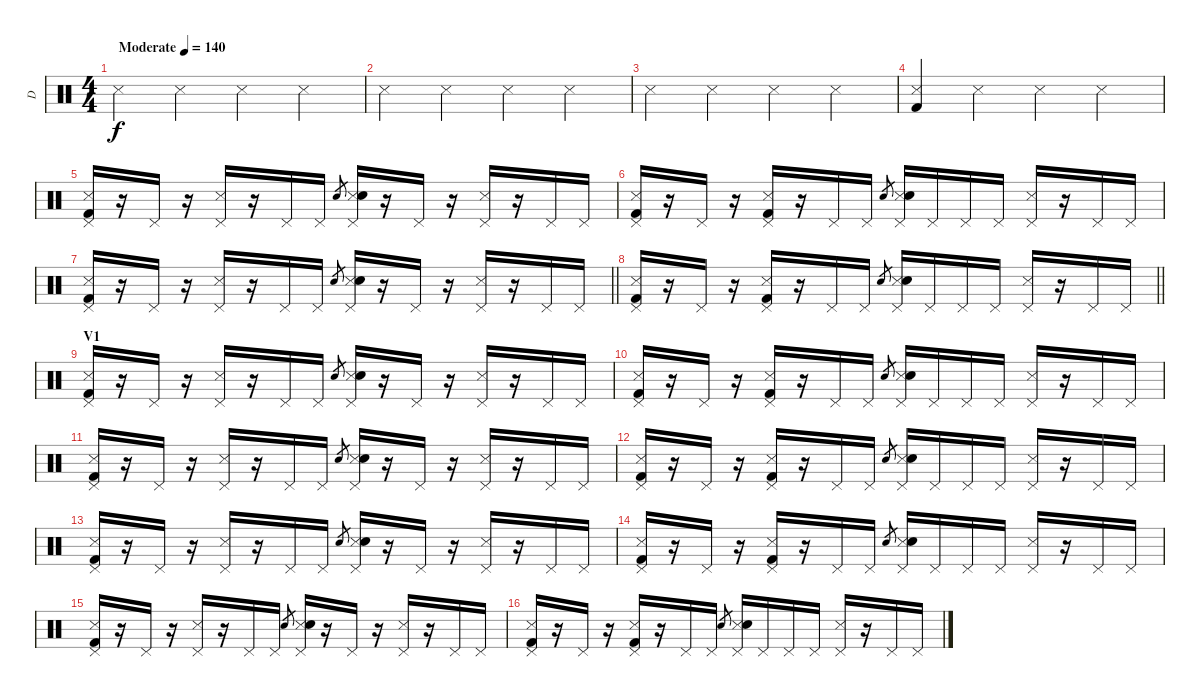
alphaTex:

\track ("D" "D") {instrument percussion}
\staff {score}
\articulation defaults
\ts (4 4)
\tempo (140 "Moderate")
\clef neutral
\ks c "Metronome (hit)".4{dy f} "Metronome (hit)".4 "Metronome (hit)".4 "Metronome (hit)".4
|
"Metronome (hit)".4 "Metronome (hit)".4 "Metronome (hit)".4 "Metronome (hit)".4 |
"Metronome (hit)".4 "Metronome (hit)".4 "Metronome (hit)".4 "Metronome (hit)".4 |
("Kick (hit) 2" "Metronome (hit)").4 "Metronome (hit)".4 "Metronome (hit)".4 "Metronome (hit)".4 |
("Metronome (hit)" "Kick (hit) 2" "Pedal Hi-Hat (hit)").16 r.16 "Pedal Hi-Hat (hit)".16 r.16 ("Metronome (hit)" "Pedal Hi-Hat (hit)").16 r.16 "Pedal Hi-Hat (hit)".16 "Pedal Hi-Hat (hit)".16 "Electric Snare (hit)".8{gr} ("Metronome (hit)" "Electric Snare (hit)" "Pedal Hi-Hat (hit)").16 r.16 "Pedal Hi-Hat (hit)".16 r.16 ("Metronome (hit)" "Pedal Hi-Hat (hit)").16 r.16 "Pedal Hi-Hat (hit)".16 "Pedal Hi-Hat (hit)".16 |
("Metronome (hit)" "Kick (hit) 2" "Pedal Hi-Hat (hit)").16 r.16 "Pedal Hi-Hat (hit)".16 r.16 ("Metronome (hit)" "Kick (hit) 2" "Pedal Hi-Hat (hit)").16 r.16 "Pedal Hi-Hat (hit)".16 "Pedal Hi-Hat (hit)".16 "Electric Snare (hit)".8{gr} ("Metronome (hit)" "Electric Snare (hit)" "Pedal Hi-Hat (hit)").16 "Pedal Hi-Hat (hit)".16 "Pedal Hi-Hat (hit)".16 "Pedal Hi-Hat (hit)".16 ("Metronome (hit)" "Pedal Hi-Hat (hit)").16 r.16 "Pedal Hi-Hat (hit)".16 "Pedal Hi-Hat (hit)".16 |
\barLineRight lightlight
("Metronome (hit)" "Kick (hit) 2" "Pedal Hi-Hat (hit)").16 r.16 "Pedal Hi-Hat (hit)".16 r.16 ("Metronome (hit)" "Pedal Hi-Hat (hit)").16 r.16 "Pedal Hi-Hat (hit)".16 "Pedal Hi-Hat (hit)".16 "Electric Snare (hit)".8{gr} ("Metronome (hit)" "Electric Snare (hit)" "Pedal Hi-Hat (hit)").16 r.16 "Pedal Hi-Hat (hit)".16 r.16 ("Metronome (hit)" "Pedal Hi-Hat (hit)").16 r.16 "Pedal Hi-Hat (hit)".16 "Pedal Hi-Hat (hit)".16 |
\section ("" "")
\barLineRight lightlight
("Metronome (hit)" "Kick (hit) 2" "Pedal Hi-Hat (hit)").16 r.16 "Pedal Hi-Hat (hit)".16 r.16 ("Metronome (hit)" "Kick (hit) 2" "Pedal Hi-Hat (hit)").16 r.16 "Pedal Hi-Hat (hit)".16 "Pedal Hi-Hat (hit)".16 "Electric Snare (hit)".8{gr} ("Metronome (hit)" "Electric Snare (hit)" "Pedal Hi-Hat (hit)").16 "Pedal Hi-Hat (hit)".16 "Pedal Hi-Hat (hit)".16 "Pedal Hi-Hat (hit)".16 ("Metronome (hit)" "Pedal Hi-Hat (hit)").16 r.16 "Pedal Hi-Hat (hit)".16 "Pedal Hi-Hat (hit)".16 |
\section ("" "V1")
("Metronome (hit)" "Kick (hit) 2" "Pedal Hi-Hat (hit)").16 r.16 "Pedal Hi-Hat (hit)".16 r.16 ("Metronome (hit)" "Pedal Hi-Hat (hit)").16 r.16 "Pedal Hi-Hat (hit)".16 "Pedal Hi-Hat (hit)".16 "Electric Snare (hit)".8{gr} ("Metronome (hit)" "Electric Snare (hit)" "Pedal Hi-Hat (hit)").16 r.16 "Pedal Hi-Hat (hit)".16 r.16 ("Metronome (hit)" "Pedal Hi-Hat (hit)").16 r.16 "Pedal Hi-Hat (hit)".16 "Pedal Hi-Hat (hit)".16 |
("Metronome (hit)" "Kick (hit) 2" "Pedal Hi-Hat (hit)").16 r.16 "Pedal Hi-Hat (hit)".16 r.16 ("Metronome (hit)" "Kick (hit) 2" "Pedal Hi-Hat (hit)").16 r.16 "Pedal Hi-Hat (hit)".16 "Pedal Hi-Hat (hit)".16 "Electric Snare (hit)".8{gr} ("Metronome (hit)" "Electric Snare (hit)" "Pedal Hi-Hat (hit)").16 "Pedal Hi-Hat (hit)".16 "Pedal Hi-Hat (hit)".16 "Pedal Hi-Hat (hit)".16 ("Metronome (hit)" "Pedal Hi-Hat (hit)").16 r.16 "Pedal Hi-Hat (hit)".16 "Pedal Hi-Hat (hit)".16 |
("Metronome (hit)" "Kick (hit) 2" "Pedal Hi-Hat (hit)").16 r.16 "Pedal Hi-Hat (hit)".16 r.16 ("Metronome (hit)" "Pedal Hi-Hat (hit)").16 r.16 "Pedal Hi-Hat (hit)".16 "Pedal Hi-Hat (hit)".16 "Electric Snare (hit)".8{gr} ("Metronome (hit)" "Electric Snare (hit)" "Pedal Hi-Hat (hit)").16 r.16 "Pedal Hi-Hat (hit)".16 r.16 ("Metronome (hit)" "Pedal Hi-Hat (hit)").16 r.16 "Pedal Hi-Hat (hit)".16 "Pedal Hi-Hat (hit)".16 |
("Metronome (hit)" "Kick (hit) 2" "Pedal Hi-Hat (hit)").16 r.16 "Pedal Hi-Hat (hit)".16 r.16 ("Metronome (hit)" "Kick (hit) 2" "Pedal Hi-Hat (hit)").16 r.16 "Pedal Hi-Hat (hit)".16 "Pedal Hi-Hat (hit)".16 "Electric Snare (hit)".8{gr} ("Metronome (hit)" "Electric Snare (hit)" "Pedal Hi-Hat (hit)").16 "Pedal Hi-Hat (hit)".16 "Pedal Hi-Hat (hit)".16 "Pedal Hi-Hat (hit)".16 ("Metronome (hit)" "Pedal Hi-Hat (hit)").16 r.16 "Pedal Hi-Hat (hit)".16 "Pedal Hi-Hat (hit)".16 |
("Metronome (hit)" "Kick (hit) 2" "Pedal Hi-Hat (hit)").16 r.16 "Pedal Hi-Hat (hit)".16 r.16 ("Metronome (hit)" "Pedal Hi-Hat (hit)").16 r.16 "Pedal Hi-Hat (hit)".16 "Pedal Hi-Hat (hit)".16 "Electric Snare (hit)".8{gr} ("Metronome (hit)" "Electric Snare (hit)" "Pedal Hi-Hat (hit)").16 r.16 "Pedal Hi-Hat (hit)".16 r.16 ("Metronome (hit)" "Pedal Hi-Hat (hit)").16 r.16 "Pedal Hi-Hat (hit)".16 "Pedal Hi-Hat (hit)".16 |
("Metronome (hit)" "Kick (hit) 2" "Pedal Hi-Hat (hit)").16 r.16 "Pedal Hi-Hat (hit)".16 r.16 ("Metronome (hit)" "Kick (hit) 2" "Pedal Hi-Hat (hit)").16 r.16 "Pedal Hi-Hat (hit)".16 "Pedal Hi-Hat (hit)".16 "Electric Snare (hit)".8{gr} ("Metronome (hit)" "Electric Snare (hit)" "Pedal Hi-Hat (hit)").16 "Pedal Hi-Hat (hit)".16 "Pedal Hi-Hat (hit)".16 "Pedal Hi-Hat (hit)".16 ("Metronome (hit)" "Pedal Hi-Hat (hit)").16 r.16 "Pedal Hi-Hat (hit)".16 "Pedal Hi-Hat (hit)".16 |
("Metronome (hit)" "Kick (hit) 2" "Pedal Hi-Hat (hit)").16 r.16 "Pedal Hi-Hat (hit)".16 r.16 ("Metronome (hit)" "Pedal Hi-Hat (hit)").16 r.16 "Pedal Hi-Hat (hit)".16 "Pedal Hi-Hat (hit)".16 "Electric Snare (hit)".8{gr} ("Metronome (hit)" "Electric Snare (hit)" "Pedal Hi-Hat (hit)").16 r.16 "Pedal Hi-Hat (hit)".16 r.16 ("Metronome (hit)" "Pedal Hi-Hat (hit)").16 r.16 "Pedal Hi-Hat (hit)".16 "Pedal Hi-Hat (hit)".16 |
("Metronome (hit)" "Kick (hit) 2" "Pedal Hi-Hat (hit)").16 r.16 "Pedal Hi-Hat (hit)".16 r.16 ("Metronome (hit)" "Kick (hit) 2" "Pedal Hi-Hat (hit)").16 r.16 "Pedal Hi-Hat (hit)".16 "Pedal Hi-Hat (hit)".16 "Electric Snare (hit)".8{gr} ("Metronome (hit)" "Electric Snare (hit)" "Pedal Hi-Hat (hit)").16 "Pedal Hi-Hat (hit)".16 "Pedal Hi-Hat (hit)".16 "Pedal Hi-Hat (hit)".16 ("Metronome (hit)" "Pedal Hi-Hat (hit)").16 r.16 "Pedal Hi-Hat (hit)".16 "Pedal Hi-Hat (hit)".16
